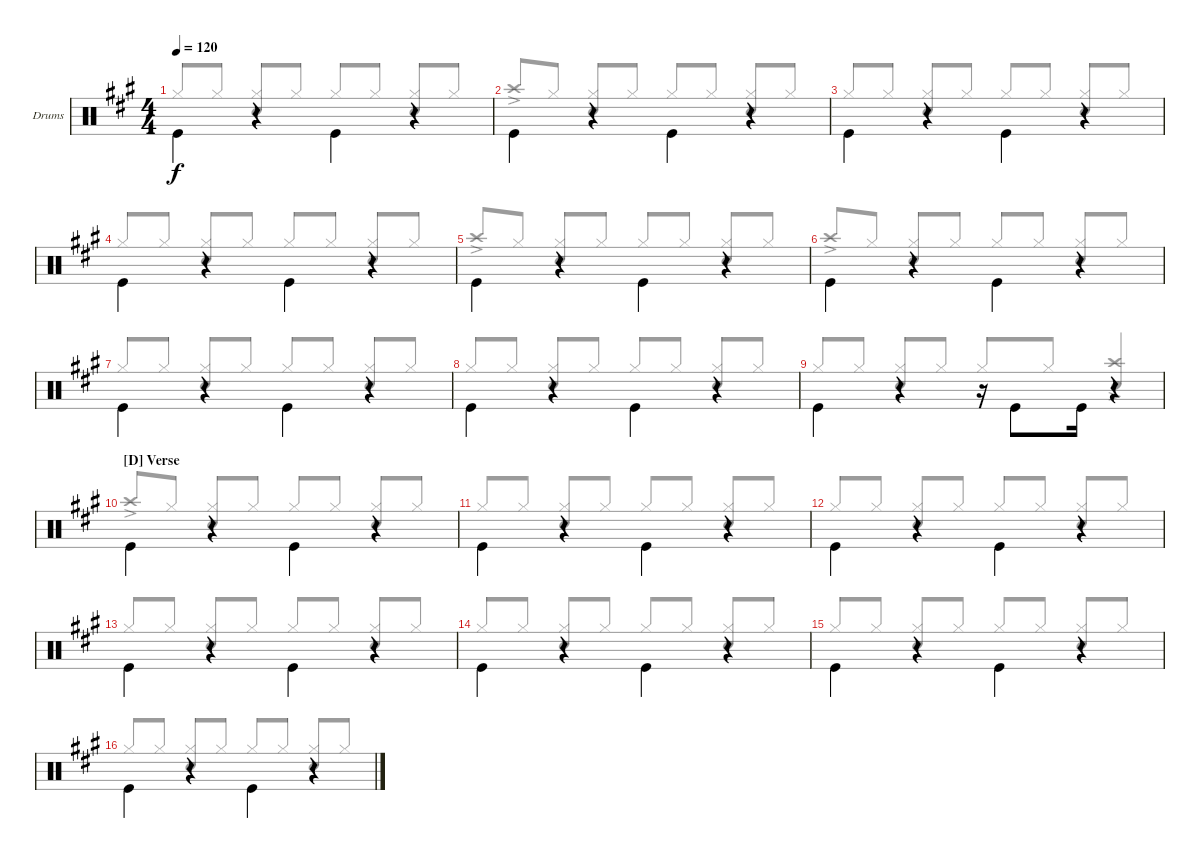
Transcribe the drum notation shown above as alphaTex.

\bracketExtendMode groupsimilarinstruments
\firstSystemTrackNameOrientation horizontal
\otherSystemsTrackNameOrientation horizontal
\track ("Drum" "Drums") {instrument percussion}
\staff {score}
\articulation defaults
\voice
\ts (4 4)
\tempo 120
\clef neutral
\scale
1.05801
\ks a "Kick (hit)".4{dy f beam invert}
r.4 "Kick (hit)".4{beam invert} r.4 |
\scale
0.941992 "Kick (hit)".4{beam invert} r.4 "Kick (hit)".4{beam invert} r.4 |
\scale
1.05801 "Kick (hit)".4{beam invert} r.4 "Kick (hit)".4{beam invert} r.4 |
\scale
0.941992 "Kick (hit)".4{beam invert} r.4 "Kick (hit)".4{beam invert} r.4 |
\scale
1.05801 "Kick (hit)".4{beam invert} r.4 "Kick (hit)".4{beam invert} r.4 |
\scale
0.941992 "Kick (hit)".4{beam invert} r.4 "Kick (hit)".4{beam invert} r.4 |
\scale
1.05801 "Kick (hit)".4{beam invert} r.4 "Kick (hit)".4{beam invert} r.4 |
\scale
0.941992 "Kick (hit)".4{beam invert} r.4 "Kick (hit)".4{beam invert} r.4 |
\scale
1.08827 "Kick (hit)".4{beam invert} r.4 r.16 "Kick (hit)".8{beam invert} "Kick (hit)".16 r.4 |
\section ("D" "Verse")
\scale
0.911728 "Kick (hit)".4{beam invert} r.4 "Kick (hit)".4{beam invert} r.4 |
\scale
1.05801 "Kick (hit)".4{beam invert} r.4 "Kick (hit)".4{beam invert} r.4 |
\scale
0.941992 "Kick (hit)".4{beam invert} r.4 "Kick (hit)".4{beam invert} r.4 |
\scale
1.05801 "Kick (hit)".4{beam invert} r.4 "Kick (hit)".4{beam invert} r.4 |
\scale
0.941992 "Kick (hit)".4{beam invert} r.4 "Kick (hit)".4{beam invert} r.4 |
\scale
1.05801 "Kick (hit)".4{beam invert} r.4 "Kick (hit)".4{beam invert} r.4 |
\scale
0.941992 "Kick (hit)".4{beam invert} r.4 "Kick (hit)".4{beam invert} r.4
\voice
\clef neutral
\ottava regular
\simile none
\scale
1.05801
\ks a "Hi-Hat (closed)".8{dy f beam invert} "Hi-Hat (closed)".8
("Hi-Hat (closed)" "Snare (hit) 2").8{beam invert} "Hi-Hat (closed)".8 "Hi-Hat (closed)".8{beam invert} "Hi-Hat (closed)".8 ("Hi-Hat (closed)" "Snare (hit) 2").8{beam invert} "Hi-Hat (closed)".8 |
\scale
0.941992 "Crash high (hit)"{ac}.8{beam invert} "Hi-Hat (closed)".8 ("Hi-Hat (closed)" "Snare (hit) 2").8{beam invert} "Hi-Hat (closed)".8 "Hi-Hat (closed)".8{beam invert} "Hi-Hat (closed)".8 ("Hi-Hat (closed)" "Snare (hit) 2").8{beam invert} "Hi-Hat (closed)".8 |
\scale
1.05801 "Hi-Hat (closed)".8{beam invert} "Hi-Hat (closed)".8 ("Hi-Hat (closed)" "Snare (hit) 2").8{beam invert} "Hi-Hat (closed)".8 "Hi-Hat (closed)".8{beam invert} "Hi-Hat (closed)".8 ("Hi-Hat (closed)" "Snare (hit) 2").8{beam invert} "Hi-Hat (closed)".8 |
\scale
0.941992 "Hi-Hat (closed)".8{beam invert} "Hi-Hat (closed)".8 ("Hi-Hat (closed)" "Snare (hit) 2").8{beam invert} "Hi-Hat (closed)".8 "Hi-Hat (closed)".8{beam invert} "Hi-Hat (closed)".8 ("Hi-Hat (closed)" "Snare (hit) 2").8{beam invert} "Hi-Hat (closed)".8 |
\scale
1.05801 "Crash high (hit)"{ac}.8{beam invert} "Hi-Hat (closed)".8 ("Hi-Hat (closed)" "Snare (hit) 2").8{beam invert} "Hi-Hat (closed)".8 "Hi-Hat (closed)".8{beam invert} "Hi-Hat (closed)".8 ("Hi-Hat (closed)" "Snare (hit) 2").8{beam invert} "Hi-Hat (closed)".8 |
\scale
0.941992 "Crash high (hit)"{ac}.8{beam invert} "Hi-Hat (closed)".8 ("Hi-Hat (closed)" "Snare (hit) 2").8{beam invert} "Hi-Hat (closed)".8 "Hi-Hat (closed)".8{beam invert} "Hi-Hat (closed)".8 ("Hi-Hat (closed)" "Snare (hit) 2").8{beam invert} "Hi-Hat (closed)".8 |
\scale
1.05801 "Hi-Hat (closed)".8{beam invert} "Hi-Hat (closed)".8 ("Hi-Hat (closed)" "Snare (hit) 2").8{beam invert} "Hi-Hat (closed)".8 "Hi-Hat (closed)".8{beam invert} "Hi-Hat (closed)".8 ("Hi-Hat (closed)" "Snare (hit) 2").8{beam invert} "Hi-Hat (closed)".8 |
\scale
0.941992 "Hi-Hat (closed)".8{beam invert} "Hi-Hat (closed)".8 ("Hi-Hat (closed)" "Snare (hit) 2").8{beam invert} "Hi-Hat (closed)".8 "Hi-Hat (closed)".8{beam invert} "Hi-Hat (closed)".8 ("Hi-Hat (closed)" "Snare (hit) 2").8{beam invert} "Hi-Hat (closed)".8 |
\scale
1.08827 "Hi-Hat (closed)".8{beam invert} "Hi-Hat (closed)".8 ("Hi-Hat (closed)" "Snare (hit) 2").8{beam invert} "Hi-Hat (closed)".8 "Hi-Hat (closed)".8{beam invert} "Hi-Hat (closed)".8 ("Crash high (hit)"{ac} "Snare (hit) 2").4{beam invert} |
\scale
0.911728 "Crash high (hit)"{ac}.8{beam invert} "Hi-Hat (closed)".8 ("Hi-Hat (closed)" "Snare (hit) 2").8{beam invert} "Hi-Hat (closed)".8 "Hi-Hat (closed)".8{beam invert} "Hi-Hat (closed)".8 ("Hi-Hat (closed)" "Snare (hit) 2").8{beam invert} "Hi-Hat (closed)".8 |
\scale
1.05801 "Hi-Hat (closed)".8{beam invert} "Hi-Hat (closed)".8 ("Hi-Hat (closed)" "Snare (hit) 2").8{beam invert} "Hi-Hat (closed)".8 "Hi-Hat (closed)".8{beam invert} "Hi-Hat (closed)".8 ("Hi-Hat (closed)" "Snare (hit) 2").8{beam invert} "Hi-Hat (closed)".8 |
\scale
0.941992 "Hi-Hat (closed)".8{beam invert} "Hi-Hat (closed)".8 ("Hi-Hat (closed)" "Snare (hit) 2").8{beam invert} "Hi-Hat (closed)".8 "Hi-Hat (closed)".8{beam invert} "Hi-Hat (closed)".8 ("Hi-Hat (closed)" "Snare (hit) 2").8{beam invert} "Hi-Hat (closed)".8 |
\scale
1.05801 "Hi-Hat (closed)".8{beam invert} "Hi-Hat (closed)".8 ("Hi-Hat (closed)" "Snare (hit) 2").8{beam invert} "Hi-Hat (closed)".8 "Hi-Hat (closed)".8{beam invert} "Hi-Hat (closed)".8 ("Hi-Hat (closed)" "Snare (hit) 2").8{beam invert} "Hi-Hat (closed)".8 |
\scale
0.941992 "Hi-Hat (closed)".8{beam invert} "Hi-Hat (closed)".8 ("Hi-Hat (closed)" "Snare (hit) 2").8{beam invert} "Hi-Hat (closed)".8 "Hi-Hat (closed)".8{beam invert} "Hi-Hat (closed)".8 ("Hi-Hat (closed)" "Snare (hit) 2").8{beam invert} "Hi-Hat (closed)".8 |
\scale
1.05801 "Hi-Hat (closed)".8{beam invert} "Hi-Hat (closed)".8 ("Hi-Hat (closed)" "Snare (hit) 2").8{beam invert} "Hi-Hat (closed)".8 "Hi-Hat (closed)".8{beam invert} "Hi-Hat (closed)".8 ("Hi-Hat (closed)" "Snare (hit) 2").8{beam invert} "Hi-Hat (closed)".8 |
\scale
0.941992 "Hi-Hat (closed)".8{beam invert} "Hi-Hat (closed)".8 ("Hi-Hat (closed)" "Snare (hit) 2").8{beam invert} "Hi-Hat (closed)".8 "Hi-Hat (closed)".8{beam invert} "Hi-Hat (closed)".8 ("Hi-Hat (closed)" "Snare (hit) 2").8{beam invert} "Hi-Hat (closed)".8
